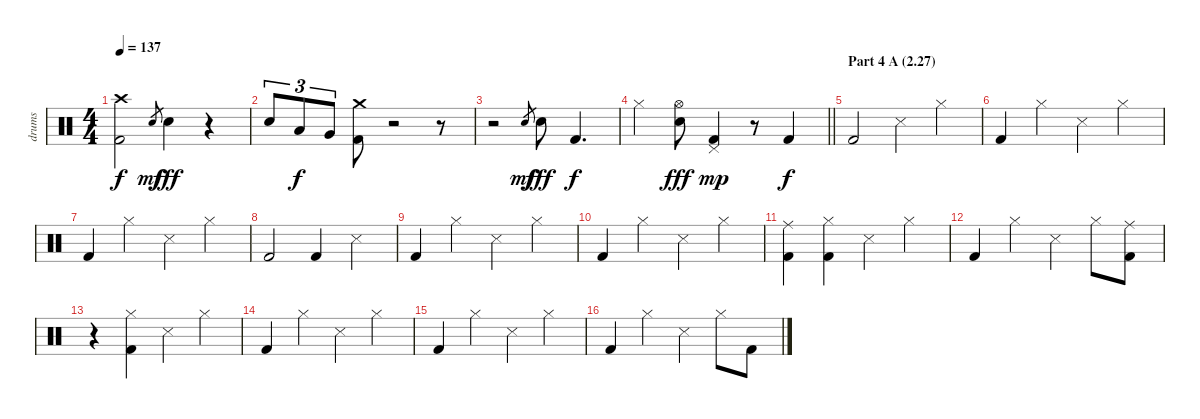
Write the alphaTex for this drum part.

\track ("drums" "drums") {instrument percussion}
\staff {score}
\articulation defaults
\ts (4 4)
\tempo 137
\clef neutral
\ks c
("Crash high (hit)" "Kick (hit) 2").2{dy f} "Electric Snare (hit)".8{gr dy mf} "Electric Snare (hit)".4{dy fff} r.4 |
"Electric Snare (hit)".8{tu (3 2)} "Low Floor Tom (hit)".8{tu (3 2) dy f} "Very Low Tom (hit)".8{tu (3 2)} ("Crash medium (hit)" "Kick (hit) 2").8 r.2 r.8 |
r.2 "Electric Snare (hit)".8{gr dy mf} "Electric Snare (hit)".8{dy fff} "Kick (hit) 2".4{d dy f} |
\barLineRight lightlight "Hi-Hat (closed)".4
("Electric Snare (hit)" "Hi-Hat (open)").8{dy fff} ("Pedal Hi-Hat (hit)" "Kick (hit) 2").4{dy mp} r.8 "Kick (hit) 2".4{dy f} |
\section ("" "Part 4 A (2.27)")
"Kick (hit) 2".2 "Snare (side stick) 3".4 "Hi-Hat (closed)".4 |
"Kick (hit) 2".4 "Hi-Hat (closed)".4 "Snare (side stick) 3".4 "Hi-Hat (closed)".4 |
"Kick (hit) 2".4 "Hi-Hat (closed)".4 "Snare (side stick) 3".4 "Hi-Hat (closed)".4 |
"Kick (hit) 2".2 "Kick (hit) 2".4 "Snare (side stick) 3".4 |
"Kick (hit) 2".4 "Hi-Hat (closed)".4 "Snare (side stick) 3".4 "Hi-Hat (closed)".4 |
"Kick (hit) 2".4 "Hi-Hat (closed)".4 "Snare (side stick) 3".4 "Hi-Hat (closed)".4 |
("Ride (middle)" "Kick (hit) 2").4 ("Kick (hit) 2" "Hi-Hat (closed)").4 "Snare (side stick) 3".4 "Hi-Hat (closed)".4 |
"Kick (hit) 2".4 "Hi-Hat (closed)".4 "Snare (side stick) 3".4 "Hi-Hat (closed)".8 ("Ride (middle)" "Kick (hit) 2").8 |
r.4 ("Hi-Hat (closed)" "Kick (hit) 2").4 "Snare (side stick) 3".4 "Hi-Hat (closed)".4 |
"Kick (hit) 2".4 "Hi-Hat (closed)".4 "Snare (side stick) 3".4 "Hi-Hat (closed)".4 |
"Kick (hit) 2".4 "Hi-Hat (closed)".4 "Snare (side stick) 3".4 "Hi-Hat (closed)".4 |
"Kick (hit) 2".4 "Hi-Hat (closed)".4 "Snare (side stick) 3".4 "Hi-Hat (closed)".8 "Kick (hit) 2".8
